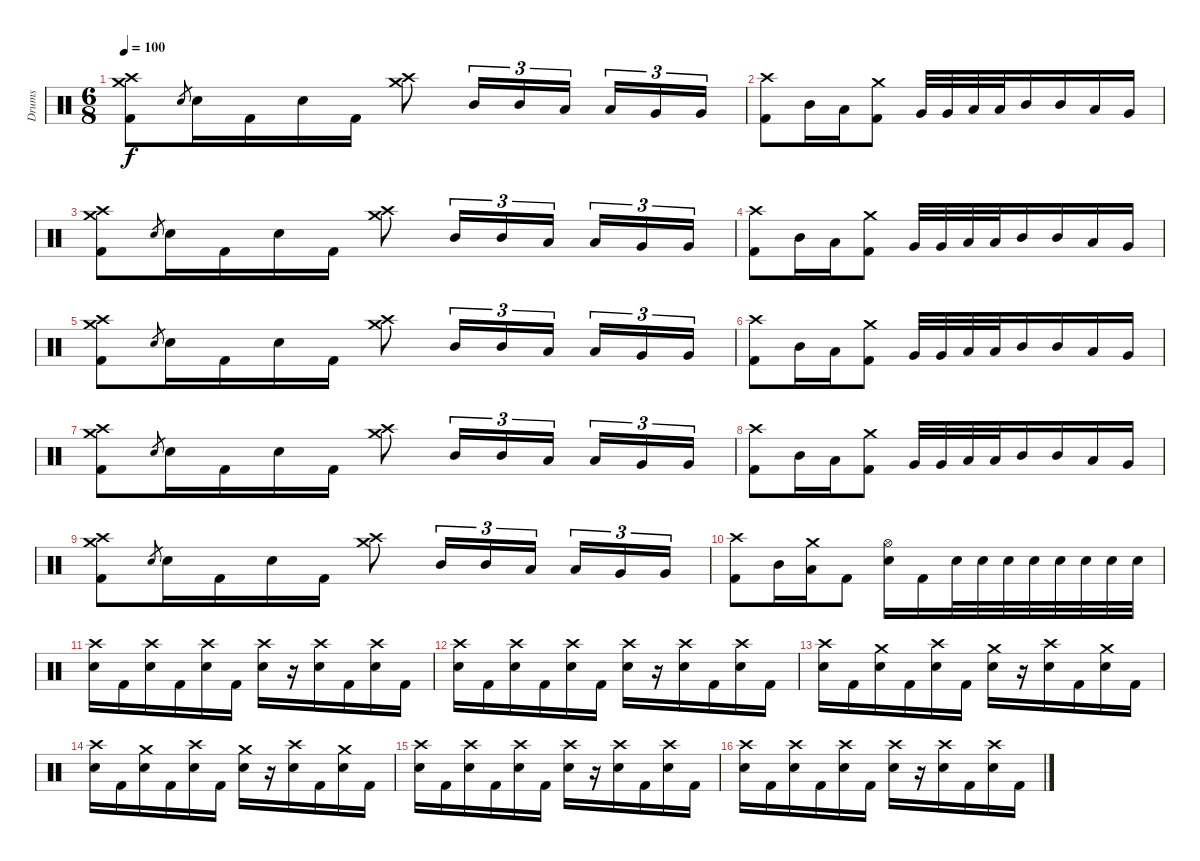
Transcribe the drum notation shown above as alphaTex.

\track ("Drums" "Drums") {instrument percussion}
\staff {score}
\articulation defaults
\ts (6 8)
\tempo 100
\clef neutral
\ks c
("Crash high (hit)" "Crash medium (hit)" "Kick (hit) 2").8{dy f} "Electric Snare (hit)".8{gr} "Electric Snare (hit)".16 "Kick (hit) 2".16 "Electric Snare (hit)".16 "Kick (hit) 2".16 ("Crash high (hit)" "Crash medium (hit)").8 "Mid Tom (hit)".16{tu (3 2)} "Mid Tom (hit)".16{tu (3 2)} "Low Tom (hit)".16{tu (3 2)} "Low Tom (hit)".16{tu (3 2)} "Very Low Tom (hit)".16{tu (3 2)} "Very Low Tom (hit)".16{tu (3 2)} |
("Crash high (hit)" "Kick (hit) 2").8 "Mid Tom (hit)".16 "Low Tom (hit)".16 ("Crash medium (hit)" "Kick (hit) 2").8 "Very Low Tom (hit)".32 "Very Low Tom (hit)".32 "Low Tom (hit)".32 "Low Tom (hit)".32 "Mid Tom (hit)".16 "Mid Tom (hit)".16 "Low Tom (hit)".16 "Very Low Tom (hit)".16 |
("Crash high (hit)" "Crash medium (hit)" "Kick (hit) 2").8 "Electric Snare (hit)".8{gr} "Electric Snare (hit)".16 "Kick (hit) 2".16 "Electric Snare (hit)".16 "Kick (hit) 2".16 ("Crash high (hit)" "Crash medium (hit)").8 "Mid Tom (hit)".16{tu (3 2)} "Mid Tom (hit)".16{tu (3 2)} "Low Tom (hit)".16{tu (3 2)} "Low Tom (hit)".16{tu (3 2)} "Very Low Tom (hit)".16{tu (3 2)} "Very Low Tom (hit)".16{tu (3 2)} |
("Crash high (hit)" "Kick (hit) 2").8 "Mid Tom (hit)".16 "Low Tom (hit)".16 ("Crash medium (hit)" "Kick (hit) 2").8 "Very Low Tom (hit)".32 "Very Low Tom (hit)".32 "Low Tom (hit)".32 "Low Tom (hit)".32 "Mid Tom (hit)".16 "Mid Tom (hit)".16 "Low Tom (hit)".16 "Very Low Tom (hit)".16 |
("Crash high (hit)" "Crash medium (hit)" "Kick (hit) 2").8 "Electric Snare (hit)".8{gr} "Electric Snare (hit)".16 "Kick (hit) 2".16 "Electric Snare (hit)".16 "Kick (hit) 2".16 ("Crash high (hit)" "Crash medium (hit)").8 "Mid Tom (hit)".16{tu (3 2)} "Mid Tom (hit)".16{tu (3 2)} "Low Tom (hit)".16{tu (3 2)} "Low Tom (hit)".16{tu (3 2)} "Very Low Tom (hit)".16{tu (3 2)} "Very Low Tom (hit)".16{tu (3 2)} |
("Crash high (hit)" "Kick (hit) 2").8 "Mid Tom (hit)".16 "Low Tom (hit)".16 ("Crash medium (hit)" "Kick (hit) 2").8 "Very Low Tom (hit)".32 "Very Low Tom (hit)".32 "Low Tom (hit)".32 "Low Tom (hit)".32 "Mid Tom (hit)".16 "Mid Tom (hit)".16 "Low Tom (hit)".16 "Very Low Tom (hit)".16 |
("Crash high (hit)" "Crash medium (hit)" "Kick (hit) 2").8 "Electric Snare (hit)".8{gr} "Electric Snare (hit)".16 "Kick (hit) 2".16 "Electric Snare (hit)".16 "Kick (hit) 2".16 ("Crash high (hit)" "Crash medium (hit)").8 "Mid Tom (hit)".16{tu (3 2)} "Mid Tom (hit)".16{tu (3 2)} "Low Tom (hit)".16{tu (3 2)} "Low Tom (hit)".16{tu (3 2)} "Very Low Tom (hit)".16{tu (3 2)} "Very Low Tom (hit)".16{tu (3 2)} |
("Crash high (hit)" "Kick (hit) 2").8 "Mid Tom (hit)".16 "Low Tom (hit)".16 ("Crash medium (hit)" "Kick (hit) 2").8 "Very Low Tom (hit)".32 "Very Low Tom (hit)".32 "Low Tom (hit)".32 "Low Tom (hit)".32 "Mid Tom (hit)".16 "Mid Tom (hit)".16 "Low Tom (hit)".16 "Very Low Tom (hit)".16 |
("Crash high (hit)" "Crash medium (hit)" "Kick (hit) 2").8 "Electric Snare (hit)".8{gr} "Electric Snare (hit)".16 "Kick (hit) 2".16 "Electric Snare (hit)".16 "Kick (hit) 2".16 ("Crash high (hit)" "Crash medium (hit)").8 "Mid Tom (hit)".16{tu (3 2)} "Mid Tom (hit)".16{tu (3 2)} "Low Tom (hit)".16{tu (3 2)} "Low Tom (hit)".16{tu (3 2)} "Very Low Tom (hit)".16{tu (3 2)} "Very Low Tom (hit)".16{tu (3 2)} |
("Crash high (hit)" "Kick (hit) 2").8 "Mid Tom (hit)".16 ("Crash medium (hit)" "Low Tom (hit)").16 "Kick (hit) 2".8 ("Hi-Hat (open)" "Electric Snare (hit)").16 "Kick (hit) 2".16 "Electric Snare (hit)".32 "Electric Snare (hit)".32 "Electric Snare (hit)".32 "Electric Snare (hit)".32 "Electric Snare (hit)".32 "Electric Snare (hit)".32 "Electric Snare (hit)".32 "Electric Snare (hit)".32 |
("Crash high (hit)" "Electric Snare (hit)").16 "Kick (hit) 2".16 ("Crash high (hit)" "Electric Snare (hit)").16 "Kick (hit) 2".16 ("Crash high (hit)" "Electric Snare (hit)").16 "Kick (hit) 2".16 ("Crash high (hit)" "Electric Snare (hit)").16 r.16 ("Crash high (hit)" "Electric Snare (hit)").16 "Kick (hit) 2".16 ("Crash high (hit)" "Electric Snare (hit)").16 "Kick (hit) 2".16 |
("Crash high (hit)" "Electric Snare (hit)").16 "Kick (hit) 2".16 ("Crash high (hit)" "Electric Snare (hit)").16 "Kick (hit) 2".16 ("Crash high (hit)" "Electric Snare (hit)").16 "Kick (hit) 2".16 ("Crash high (hit)" "Electric Snare (hit)").16 r.16 ("Crash high (hit)" "Electric Snare (hit)").16 "Kick (hit) 2".16 ("Crash high (hit)" "Electric Snare (hit)").16 "Kick (hit) 2".16 |
("Crash high (hit)" "Electric Snare (hit)").16 "Kick (hit) 2".16 ("Crash medium (hit)" "Electric Snare (hit)").16 "Kick (hit) 2".16 ("Crash high (hit)" "Electric Snare (hit)").16 "Kick (hit) 2".16 ("Crash medium (hit)" "Electric Snare (hit)").16 r.16 ("Crash high (hit)" "Electric Snare (hit)").16 "Kick (hit) 2".16 ("Crash medium (hit)" "Electric Snare (hit)").16 "Kick (hit) 2".16 |
("Crash high (hit)" "Electric Snare (hit)").16 "Kick (hit) 2".16 ("Crash medium (hit)" "Electric Snare (hit)").16 "Kick (hit) 2".16 ("Crash high (hit)" "Electric Snare (hit)").16 "Kick (hit) 2".16 ("Crash medium (hit)" "Electric Snare (hit)").16 r.16 ("Crash high (hit)" "Electric Snare (hit)").16 "Kick (hit) 2".16 ("Crash medium (hit)" "Electric Snare (hit)").16 "Kick (hit) 2".16 |
("Crash high (hit)" "Electric Snare (hit)").16 "Kick (hit) 2".16 ("Crash high (hit)" "Electric Snare (hit)").16 "Kick (hit) 2".16 ("Crash high (hit)" "Electric Snare (hit)").16 "Kick (hit) 2".16 ("Crash high (hit)" "Electric Snare (hit)").16 r.16 ("Crash high (hit)" "Electric Snare (hit)").16 "Kick (hit) 2".16 ("Crash high (hit)" "Electric Snare (hit)").16 "Kick (hit) 2".16 |
("Crash high (hit)" "Electric Snare (hit)").16 "Kick (hit) 2".16 ("Crash high (hit)" "Electric Snare (hit)").16 "Kick (hit) 2".16 ("Crash high (hit)" "Electric Snare (hit)").16 "Kick (hit) 2".16 ("Crash high (hit)" "Electric Snare (hit)").16 r.16 ("Crash high (hit)" "Electric Snare (hit)").16 "Kick (hit) 2".16 ("Crash high (hit)" "Electric Snare (hit)").16 "Kick (hit) 2".16
